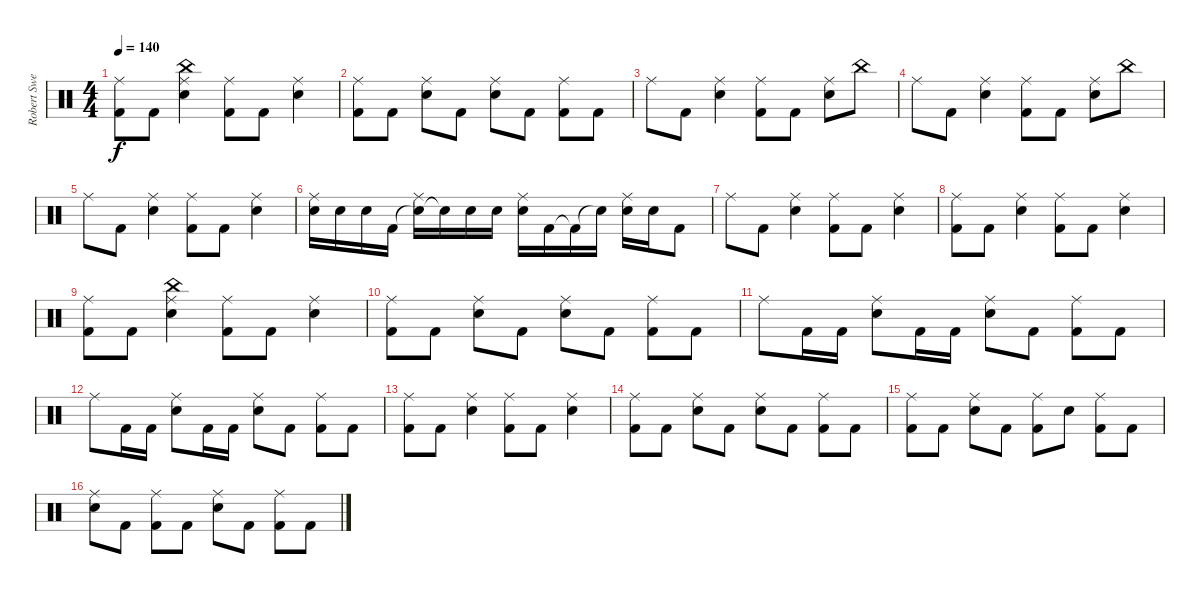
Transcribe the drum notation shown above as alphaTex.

\track ("Robert Sweet" "Robert Swe") {instrument percussion}
\staff {score}
\articulation defaults
\ts (4 4)
\tempo 140
\clef neutral
\ks c
("Kick (hit) 2" "Ride (middle)").8{dy f} "Kick (hit) 2".8 ("Electric Snare (hit)" "China (hit)" "Ride (middle)").4 ("Kick (hit) 2" "Ride (middle)").8 "Kick (hit) 2".8 ("Electric Snare (hit)" "Ride (middle)").4 |
("Kick (hit) 2" "Ride (middle)").8 "Kick (hit) 2".8 ("Electric Snare (hit)" "Ride (middle)").8 "Kick (hit) 2".8 ("Electric Snare (hit)" "Ride (middle)").8 "Kick (hit) 2".8 ("Kick (hit) 2" "Ride (middle)").8 "Kick (hit) 2".8 |
"Ride (middle)".8 "Kick (hit) 2".8 ("Electric Snare (hit)" "Ride (middle)").4 ("Kick (hit) 2" "Ride (middle)").8 "Kick (hit) 2".8 ("Electric Snare (hit)" "Ride (middle)").8 "China (hit)".8 |
"Ride (middle)".8 "Kick (hit) 2".8 ("Electric Snare (hit)" "Ride (middle)").4 ("Kick (hit) 2" "Ride (middle)").8 "Kick (hit) 2".8 ("Electric Snare (hit)" "Ride (middle)").8 "China (hit)".8 |
"Ride (middle)".8 "Kick (hit) 2".8 ("Electric Snare (hit)" "Ride (middle)").4 ("Kick (hit) 2" "Ride (middle)").8 "Kick (hit) 2".8 ("Electric Snare (hit)" "Ride (middle)").4 |
("Electric Snare (hit)" "Ride (middle)").16 "Electric Snare (hit)".16 "Electric Snare (hit)".16 "Kick (hit) 2".16 ("Electric Snare (hit)"{t} "Ride (middle)").16 "Electric Snare (hit)"{t}.16 "Electric Snare (hit)".16 "Electric Snare (hit)".16 ("Electric Snare (hit)" "Ride (middle)").16 "Kick (hit) 2".16 "Kick (hit) 2"{t}.16 "Electric Snare (hit)"{t}.16 ("Electric Snare (hit)" "Ride (middle)").16 "Electric Snare (hit)".16 "Kick (hit) 2".8 |
"Ride (middle)".8 "Kick (hit) 2".8 ("Electric Snare (hit)" "Ride (middle)").4 ("Kick (hit) 2" "Ride (middle)").8 "Kick (hit) 2".8 ("Electric Snare (hit)" "Ride (middle)").4 |
("Kick (hit) 2" "Ride (middle)").8 "Kick (hit) 2".8 ("Electric Snare (hit)" "Ride (middle)").4 ("Kick (hit) 2" "Ride (middle)").8 "Kick (hit) 2".8 ("Electric Snare (hit)" "Ride (middle)").4 |
("Kick (hit) 2" "Ride (middle)").8 "Kick (hit) 2".8 ("Electric Snare (hit)" "China (hit)" "Ride (middle)").4 ("Kick (hit) 2" "Ride (middle)").8 "Kick (hit) 2".8 ("Electric Snare (hit)" "Ride (middle)").4 |
("Kick (hit) 2" "Ride (middle)").8 "Kick (hit) 2".8 ("Electric Snare (hit)" "Ride (middle)").8 "Kick (hit) 2".8 ("Electric Snare (hit)" "Ride (middle)").8 "Kick (hit) 2".8 ("Kick (hit) 2" "Ride (middle)").8 "Kick (hit) 2".8 |
"Ride (middle)".8 "Kick (hit) 2".16 "Kick (hit) 2".16 ("Electric Snare (hit)" "Ride (middle)").8 "Kick (hit) 2".16 "Kick (hit) 2".16 ("Electric Snare (hit)" "Ride (middle)").8 "Kick (hit) 2".8 ("Kick (hit) 2" "Ride (middle)").8 "Kick (hit) 2".8 |
"Ride (middle)".8 "Kick (hit) 2".16 "Kick (hit) 2".16 ("Electric Snare (hit)" "Ride (middle)").8 "Kick (hit) 2".16 "Kick (hit) 2".16 ("Electric Snare (hit)" "Ride (middle)").8 "Kick (hit) 2".8 ("Kick (hit) 2" "Ride (middle)").8 "Kick (hit) 2".8 |
("Kick (hit) 2" "Ride (middle)").8 "Kick (hit) 2".8 ("Electric Snare (hit)" "Ride (middle)").4 ("Kick (hit) 2" "Ride (middle)").8 "Kick (hit) 2".8 ("Electric Snare (hit)" "Ride (middle)").4 |
("Kick (hit) 2" "Ride (middle)").8 "Kick (hit) 2".8 ("Electric Snare (hit)" "Ride (middle)").8 "Kick (hit) 2".8 ("Electric Snare (hit)" "Ride (middle)").8 "Kick (hit) 2".8 ("Kick (hit) 2" "Ride (middle)").8 "Kick (hit) 2".8 |
("Kick (hit) 2" "Ride (middle)").8 "Kick (hit) 2".8 ("Electric Snare (hit)" "Ride (middle)").8 "Kick (hit) 2".8 ("Kick (hit) 2" "Ride (middle)").8 "Electric Snare (hit)".8 ("Kick (hit) 2" "Ride (middle)").8 "Kick (hit) 2".8 |
("Electric Snare (hit)" "Ride (middle)").8 "Kick (hit) 2".8 ("Kick (hit) 2" "Ride (middle)").8 "Kick (hit) 2".8 ("Electric Snare (hit)" "Ride (middle)").8 "Kick (hit) 2".8 ("Kick (hit) 2" "Ride (middle)").8 "Kick (hit) 2".8
